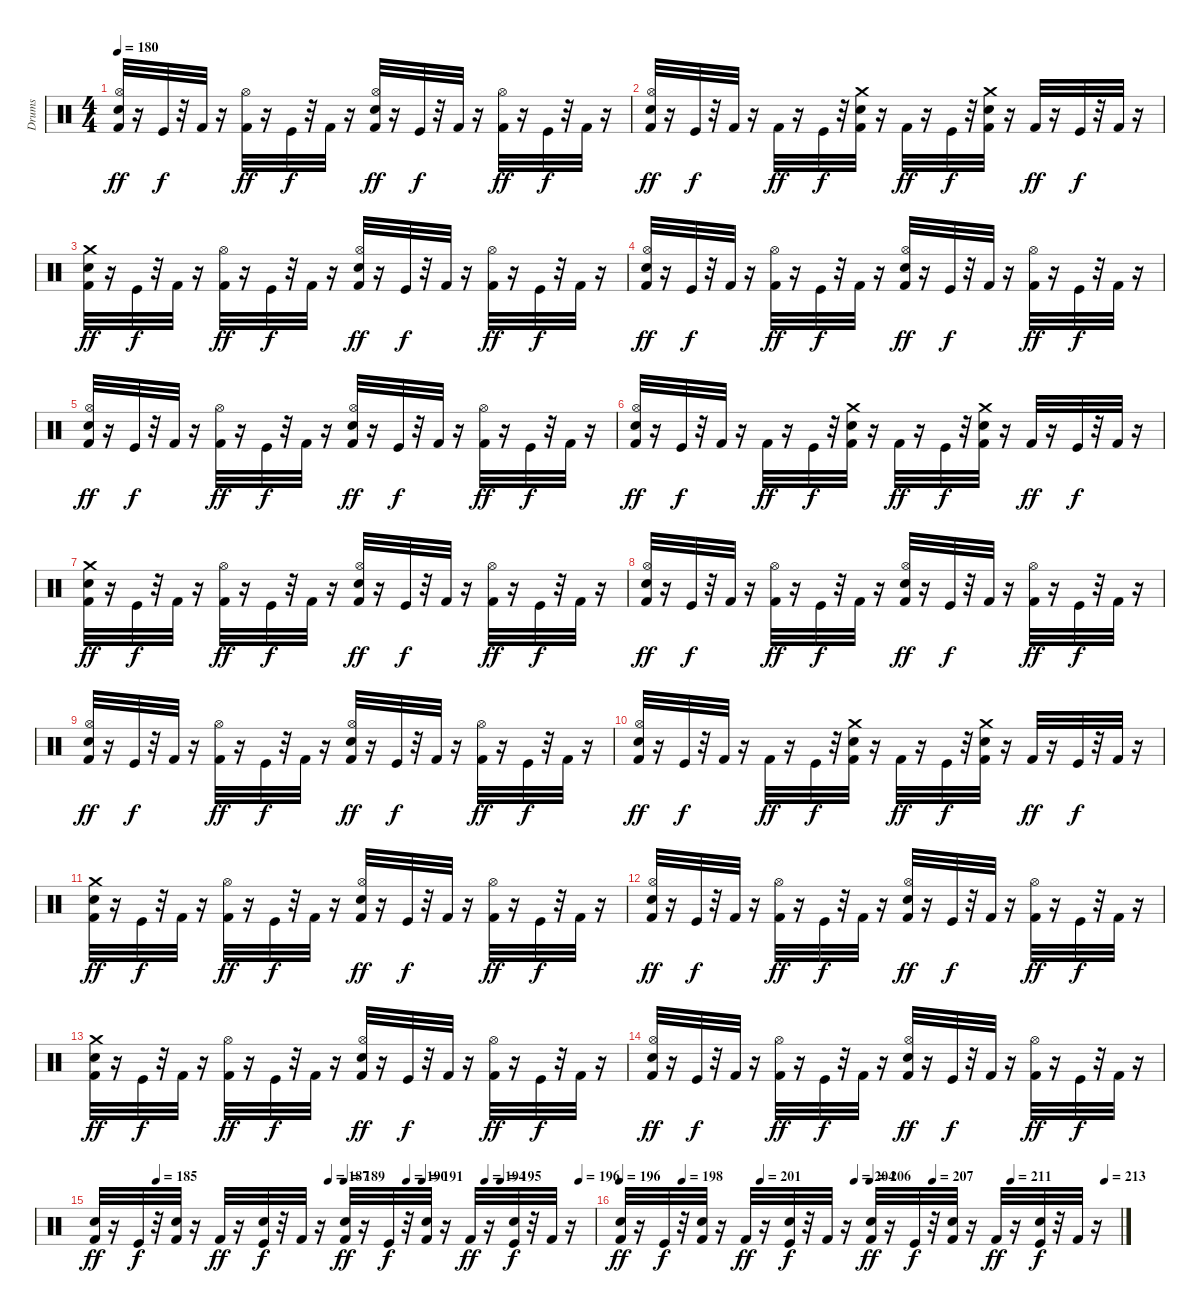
\track ("Drums" "Drums") {instrument percussion}
\staff {score}
\articulation defaults
\ts (4 4)
\tempo 180
\clef neutral
\ks c
("Snare (hit) 2" "Hi-Hat (open)" "Kick (hit) 2").32{dy ff} r.16 "Kick (hit)".32{dy f} r.32 "Kick (hit) 2".32 r.16 ("Hi-Hat (open)" "Kick (hit) 2").32{dy ff} r.16 "Kick (hit)".32{dy f} r.32 "Kick (hit) 2".32 r.16 ("Snare (hit) 2" "Hi-Hat (open)" "Kick (hit) 2").32{dy ff} r.16 "Kick (hit)".32{dy f} r.32 "Kick (hit) 2".32 r.16 ("Hi-Hat (open)" "Kick (hit) 2").32{dy ff} r.16 "Kick (hit)".32{dy f} r.32 "Kick (hit) 2".32 r.16 |
("Snare (hit) 2" "Hi-Hat (open)" "Kick (hit) 2").32{dy ff} r.16 "Kick (hit)".32{dy f} r.32 "Kick (hit) 2".32 r.16 "Kick (hit) 2".32{dy ff} r.16 "Kick (hit)".32{dy f} r.32 ("Crash medium (hit)" "Snare (hit) 2" "Kick (hit) 2").32 r.16 "Kick (hit) 2".32{dy ff} r.16 "Kick (hit)".32{dy f} r.32 ("Crash medium (hit)" "Snare (hit) 2" "Kick (hit) 2").32 r.16 "Kick (hit) 2".32{dy ff} r.16 "Kick (hit)".32{dy f} r.32 "Kick (hit) 2".32 r.16 |
("Snare (hit) 2" "Crash medium (hit)" "Kick (hit) 2").32{dy ff} r.16 "Kick (hit)".32{dy f} r.32 "Kick (hit) 2".32 r.16 ("Hi-Hat (open)" "Kick (hit) 2").32{dy ff} r.16 "Kick (hit)".32{dy f} r.32 "Kick (hit) 2".32 r.16 ("Snare (hit) 2" "Hi-Hat (open)" "Kick (hit) 2").32{dy ff} r.16 "Kick (hit)".32{dy f} r.32 "Kick (hit) 2".32 r.16 ("Hi-Hat (open)" "Kick (hit) 2").32{dy ff} r.16 "Kick (hit)".32{dy f} r.32 "Kick (hit) 2".32 r.16 |
("Snare (hit) 2" "Hi-Hat (open)" "Kick (hit) 2").32{dy ff} r.16 "Kick (hit)".32{dy f} r.32 "Kick (hit) 2".32 r.16 ("Hi-Hat (open)" "Kick (hit) 2").32{dy ff} r.16 "Kick (hit)".32{dy f} r.32 "Kick (hit) 2".32 r.16 ("Snare (hit) 2" "Hi-Hat (open)" "Kick (hit) 2").32{dy ff} r.16 "Kick (hit)".32{dy f} r.32 "Kick (hit) 2".32 r.16 ("Hi-Hat (open)" "Kick (hit) 2").32{dy ff} r.16 "Kick (hit)".32{dy f} r.32 "Kick (hit) 2".32 r.16 |
("Snare (hit) 2" "Hi-Hat (open)" "Kick (hit) 2").32{dy ff} r.16 "Kick (hit)".32{dy f} r.32 "Kick (hit) 2".32 r.16 ("Hi-Hat (open)" "Kick (hit) 2").32{dy ff} r.16 "Kick (hit)".32{dy f} r.32 "Kick (hit) 2".32 r.16 ("Snare (hit) 2" "Hi-Hat (open)" "Kick (hit) 2").32{dy ff} r.16 "Kick (hit)".32{dy f} r.32 "Kick (hit) 2".32 r.16 ("Hi-Hat (open)" "Kick (hit) 2").32{dy ff} r.16 "Kick (hit)".32{dy f} r.32 "Kick (hit) 2".32 r.16 |
("Snare (hit) 2" "Hi-Hat (open)" "Kick (hit) 2").32{dy ff} r.16 "Kick (hit)".32{dy f} r.32 "Kick (hit) 2".32 r.16 "Kick (hit) 2".32{dy ff} r.16 "Kick (hit)".32{dy f} r.32 ("Crash medium (hit)" "Snare (hit) 2" "Kick (hit) 2").32 r.16 "Kick (hit) 2".32{dy ff} r.16 "Kick (hit)".32{dy f} r.32 ("Crash medium (hit)" "Snare (hit) 2" "Kick (hit) 2").32 r.16 "Kick (hit) 2".32{dy ff} r.16 "Kick (hit)".32{dy f} r.32 "Kick (hit) 2".32 r.16 |
("Snare (hit) 2" "Crash medium (hit)" "Kick (hit) 2").32{dy ff} r.16 "Kick (hit)".32{dy f} r.32 "Kick (hit) 2".32 r.16 ("Hi-Hat (open)" "Kick (hit) 2").32{dy ff} r.16 "Kick (hit)".32{dy f} r.32 "Kick (hit) 2".32 r.16 ("Snare (hit) 2" "Hi-Hat (open)" "Kick (hit) 2").32{dy ff} r.16 "Kick (hit)".32{dy f} r.32 "Kick (hit) 2".32 r.16 ("Hi-Hat (open)" "Kick (hit) 2").32{dy ff} r.16 "Kick (hit)".32{dy f} r.32 "Kick (hit) 2".32 r.16 |
("Snare (hit) 2" "Hi-Hat (open)" "Kick (hit) 2").32{dy ff} r.16 "Kick (hit)".32{dy f} r.32 "Kick (hit) 2".32 r.16 ("Hi-Hat (open)" "Kick (hit) 2").32{dy ff} r.16 "Kick (hit)".32{dy f} r.32 "Kick (hit) 2".32 r.16 ("Snare (hit) 2" "Hi-Hat (open)" "Kick (hit) 2").32{dy ff} r.16 "Kick (hit)".32{dy f} r.32 "Kick (hit) 2".32 r.16 ("Hi-Hat (open)" "Kick (hit) 2").32{dy ff} r.16 "Kick (hit)".32{dy f} r.32 "Kick (hit) 2".32 r.16 |
("Snare (hit) 2" "Hi-Hat (open)" "Kick (hit) 2").32{dy ff} r.16 "Kick (hit)".32{dy f} r.32 "Kick (hit) 2".32 r.16 ("Hi-Hat (open)" "Kick (hit) 2").32{dy ff} r.16 "Kick (hit)".32{dy f} r.32 "Kick (hit) 2".32 r.16 ("Snare (hit) 2" "Hi-Hat (open)" "Kick (hit) 2").32{dy ff} r.16 "Kick (hit)".32{dy f} r.32 "Kick (hit) 2".32 r.16 ("Hi-Hat (open)" "Kick (hit) 2").32{dy ff} r.16 "Kick (hit)".32{dy f} r.32 "Kick (hit) 2".32 r.16 |
("Snare (hit) 2" "Hi-Hat (open)" "Kick (hit) 2").32{dy ff} r.16 "Kick (hit)".32{dy f} r.32 "Kick (hit) 2".32 r.16 "Kick (hit) 2".32{dy ff} r.16 "Kick (hit)".32{dy f} r.32 ("Crash medium (hit)" "Snare (hit) 2" "Kick (hit) 2").32 r.16 "Kick (hit) 2".32{dy ff} r.16 "Kick (hit)".32{dy f} r.32 ("Crash medium (hit)" "Snare (hit) 2" "Kick (hit) 2").32 r.16 "Kick (hit) 2".32{dy ff} r.16 "Kick (hit)".32{dy f} r.32 "Kick (hit) 2".32 r.16 |
("Snare (hit) 2" "Crash medium (hit)" "Kick (hit) 2").32{dy ff} r.16 "Kick (hit)".32{dy f} r.32 "Kick (hit) 2".32 r.16 ("Hi-Hat (open)" "Kick (hit) 2").32{dy ff} r.16 "Kick (hit)".32{dy f} r.32 "Kick (hit) 2".32 r.16 ("Snare (hit) 2" "Hi-Hat (open)" "Kick (hit) 2").32{dy ff} r.16 "Kick (hit)".32{dy f} r.32 "Kick (hit) 2".32 r.16 ("Hi-Hat (open)" "Kick (hit) 2").32{dy ff} r.16 "Kick (hit)".32{dy f} r.32 "Kick (hit) 2".32 r.16 |
("Snare (hit) 2" "Hi-Hat (open)" "Kick (hit) 2").32{dy ff} r.16 "Kick (hit)".32{dy f} r.32 "Kick (hit) 2".32 r.16 ("Hi-Hat (open)" "Kick (hit) 2").32{dy ff} r.16 "Kick (hit)".32{dy f} r.32 "Kick (hit) 2".32 r.16 ("Snare (hit) 2" "Hi-Hat (open)" "Kick (hit) 2").32{dy ff} r.16 "Kick (hit)".32{dy f} r.32 "Kick (hit) 2".32 r.16 ("Hi-Hat (open)" "Kick (hit) 2").32{dy ff} r.16 "Kick (hit)".32{dy f} r.32 "Kick (hit) 2".32 r.16 |
("Snare (hit) 2" "Crash medium (hit)" "Kick (hit) 2").32{dy ff} r.16 "Kick (hit)".32{dy f} r.32 "Kick (hit) 2".32 r.16 ("Hi-Hat (open)" "Kick (hit) 2").32{dy ff} r.16 "Kick (hit)".32{dy f} r.32 "Kick (hit) 2".32 r.16 ("Snare (hit) 2" "Hi-Hat (open)" "Kick (hit) 2").32{dy ff} r.16 "Kick (hit)".32{dy f} r.32 "Kick (hit) 2".32 r.16 ("Hi-Hat (open)" "Kick (hit) 2").32{dy ff} r.16 "Kick (hit)".32{dy f} r.32 "Kick (hit) 2".32 r.16 |
("Snare (hit) 2" "Hi-Hat (open)" "Kick (hit) 2").32{dy ff} r.16 "Kick (hit)".32{dy f} r.32 "Kick (hit) 2".32 r.16 ("Hi-Hat (open)" "Kick (hit) 2").32{dy ff} r.16 "Kick (hit)".32{dy f} r.32 "Kick (hit) 2".32 r.16 ("Snare (hit) 2" "Hi-Hat (open)" "Kick (hit) 2").32{dy ff} r.16 "Kick (hit)".32{dy f} r.32 "Kick (hit) 2".32 r.16 ("Hi-Hat (open)" "Kick (hit) 2").32{dy ff} r.16 "Kick (hit)".32{dy f} r.32 "Kick (hit) 2".32 r.16 |
\tempo (185 0.125)
\tempo (187 0.46875)
\tempo (189 0.5)
\tempo (190 0.625)
\tempo (191 0.65625)
\tempo (194 0.78125)
\tempo (195 0.8125)
\tempo (196 0.96875)
("Snare (hit) 2" "Kick (hit) 2").32{dy ff} r.16 "Kick (hit)".32{dy f} r.32 ("Snare (hit) 2" "Kick (hit) 2").32 r.16 "Kick (hit) 2".32{dy ff} r.16 ("Snare (hit) 2" "Kick (hit)").32{dy f} r.32 "Kick (hit) 2".32 r.16 ("Snare (hit) 2" "Kick (hit) 2").32{dy ff} r.16 "Kick (hit)".32{dy f} r.32 ("Snare (hit) 2" "Kick (hit) 2").32 r.16 "Kick (hit) 2".32{dy ff} r.16 ("Snare (hit) 2" "Kick (hit)").32{dy f} r.32 "Kick (hit) 2".32 r.16 |
\tempo 196
\tempo (198 0.125)
\tempo (201 0.28125)
\tempo (204 0.46875)
\tempo (206 0.5)
\tempo (207 0.625)
\tempo (211 0.78125)
\tempo (213 0.96875)
("Snare (hit) 2" "Kick (hit) 2").32{dy ff} r.16 "Kick (hit)".32{dy f} r.32 ("Snare (hit) 2" "Kick (hit) 2").32 r.16 "Kick (hit) 2".32{dy ff} r.16 ("Snare (hit) 2" "Kick (hit)").32{dy f} r.32 "Kick (hit) 2".32 r.16 ("Snare (hit) 2" "Kick (hit) 2").32{dy ff} r.16 "Kick (hit)".32{dy f} r.32 ("Snare (hit) 2" "Kick (hit) 2").32 r.16 "Kick (hit) 2".32{dy ff} r.16 ("Snare (hit) 2" "Kick (hit)").32{dy f} r.32 "Kick (hit) 2".32 r.16
